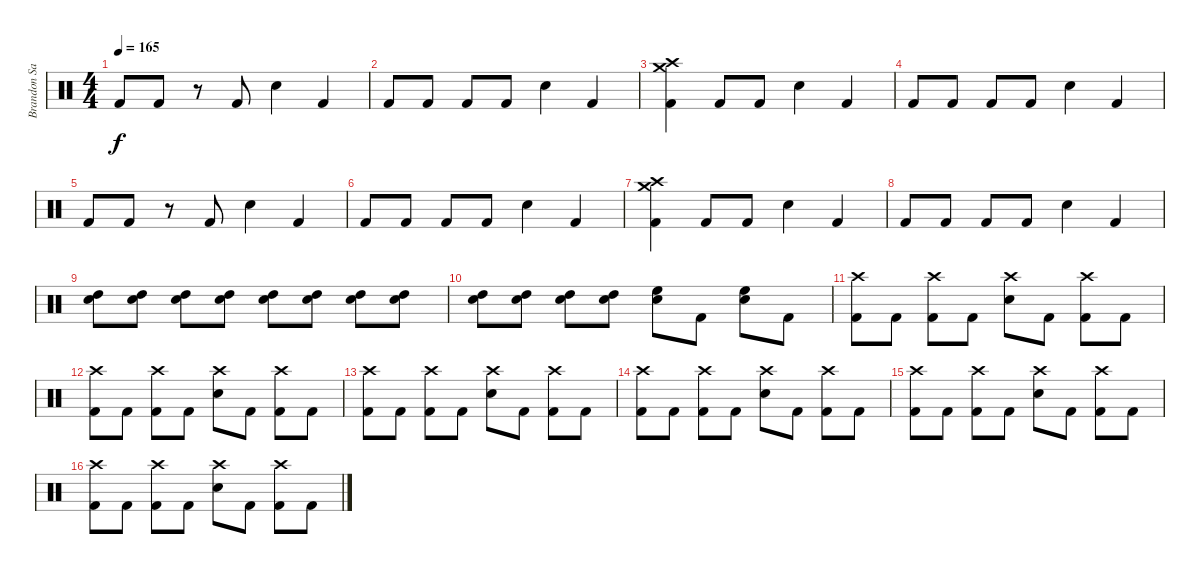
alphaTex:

\track ("Brandon Saller" "Brandon Sa") {instrument percussion}
\staff {score}
\articulation defaults
\ts (4 4)
\tempo 165
\clef neutral
\ks c "Kick (hit) 2".8{dy f} "Kick (hit) 2".8
r.8 "Kick (hit) 2".8 "Electric Snare (hit)".4 "Kick (hit) 2".4 |
"Kick (hit) 2".8 "Kick (hit) 2".8 "Kick (hit) 2".8 "Kick (hit) 2".8 "Electric Snare (hit)".4 "Kick (hit) 2".4 |
("Crash medium (hit)" "Crash high (hit)" "Kick (hit) 2").4 "Kick (hit) 2".8 "Kick (hit) 2".8 "Electric Snare (hit)".4 "Kick (hit) 2".4 |
"Kick (hit) 2".8 "Kick (hit) 2".8 "Kick (hit) 2".8 "Kick (hit) 2".8 "Electric Snare (hit)".4 "Kick (hit) 2".4 |
"Kick (hit) 2".8 "Kick (hit) 2".8 r.8 "Kick (hit) 2".8 "Electric Snare (hit)".4 "Kick (hit) 2".4 |
"Kick (hit) 2".8 "Kick (hit) 2".8 "Kick (hit) 2".8 "Kick (hit) 2".8 "Electric Snare (hit)".4 "Kick (hit) 2".4 |
("Crash medium (hit)" "Crash high (hit)" "Kick (hit) 2").4 "Kick (hit) 2".8 "Kick (hit) 2".8 "Electric Snare (hit)".4 "Kick (hit) 2".4 |
"Kick (hit) 2".8 "Kick (hit) 2".8 "Kick (hit) 2".8 "Kick (hit) 2".8 "Electric Snare (hit)".4 "Kick (hit) 2".4 |
("High Tom (hit)" "Electric Snare (hit)").8 ("High Tom (hit)" "Electric Snare (hit)").8 ("High Tom (hit)" "Electric Snare (hit)").8 ("High Tom (hit)" "Electric Snare (hit)").8 ("High Tom (hit)" "Electric Snare (hit)").8 ("High Tom (hit)" "Electric Snare (hit)").8 ("High Tom (hit)" "Electric Snare (hit)").8 ("High Tom (hit)" "Electric Snare (hit)").8 |
("High Tom (hit)" "Electric Snare (hit)").8 ("High Tom (hit)" "Electric Snare (hit)").8 ("High Tom (hit)" "Electric Snare (hit)").8 ("High Tom (hit)" "Electric Snare (hit)").8 ("High Floor Tom (hit)" "Electric Snare (hit)").8 "Kick (hit) 2".8 ("High Floor Tom (hit)" "Electric Snare (hit)").8 "Kick (hit) 2".8 |
("Crash high (hit)" "Kick (hit) 2").8 "Kick (hit) 2".8 ("Crash high (hit)" "Kick (hit) 2").8 "Kick (hit) 2".8 ("Crash high (hit)" "Electric Snare (hit)").8 "Kick (hit) 2".8 ("Crash high (hit)" "Kick (hit) 2").8 "Kick (hit) 2".8 |
("Crash high (hit)" "Kick (hit) 2").8 "Kick (hit) 2".8 ("Crash high (hit)" "Kick (hit) 2").8 "Kick (hit) 2".8 ("Crash high (hit)" "Electric Snare (hit)").8 "Kick (hit) 2".8 ("Crash high (hit)" "Kick (hit) 2").8 "Kick (hit) 2".8 |
("Crash high (hit)" "Kick (hit) 2").8 "Kick (hit) 2".8 ("Crash high (hit)" "Kick (hit) 2").8 "Kick (hit) 2".8 ("Crash high (hit)" "Electric Snare (hit)").8 "Kick (hit) 2".8 ("Crash high (hit)" "Kick (hit) 2").8 "Kick (hit) 2".8 |
("Crash high (hit)" "Kick (hit) 2").8 "Kick (hit) 2".8 ("Crash high (hit)" "Kick (hit) 2").8 "Kick (hit) 2".8 ("Crash high (hit)" "Electric Snare (hit)").8 "Kick (hit) 2".8 ("Crash high (hit)" "Kick (hit) 2").8 "Kick (hit) 2".8 |
("Crash high (hit)" "Kick (hit) 2").8 "Kick (hit) 2".8 ("Crash high (hit)" "Kick (hit) 2").8 "Kick (hit) 2".8 ("Crash high (hit)" "Electric Snare (hit)").8 "Kick (hit) 2".8 ("Crash high (hit)" "Kick (hit) 2").8 "Kick (hit) 2".8 |
("Crash high (hit)" "Kick (hit) 2").8 "Kick (hit) 2".8 ("Crash high (hit)" "Kick (hit) 2").8 "Kick (hit) 2".8 ("Crash high (hit)" "Electric Snare (hit)").8 "Kick (hit) 2".8 ("Crash high (hit)" "Kick (hit) 2").8 "Kick (hit) 2".8
